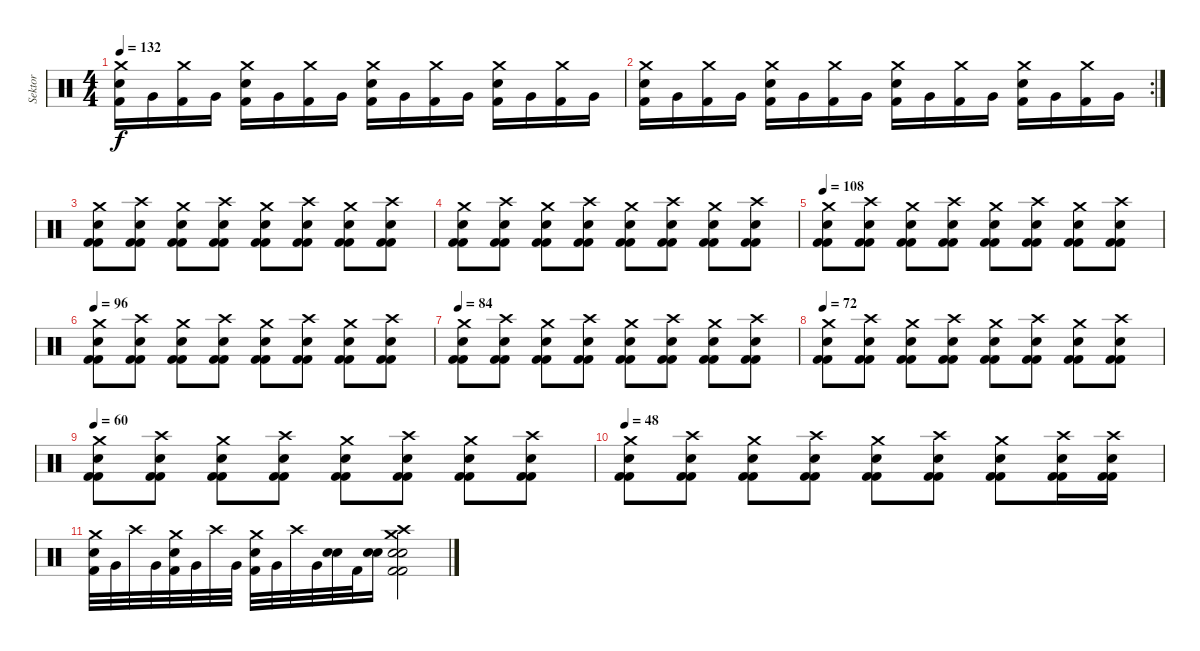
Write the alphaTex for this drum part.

\track ("Sektor" "Sektor") {instrument percussion}
\staff {score}
\articulation defaults
\ts (4 4)
\tempo 132
\clef neutral
\ks c
("Crash medium (hit)" "Snare (hit) 2" "Kick (hit) 2").16{dy f} "Very Low Tom (hit)".16 ("Crash medium (hit)" "Kick (hit) 2").16 "Very Low Tom (hit)".16 ("Crash medium (hit)" "Snare (hit) 2" "Kick (hit) 2").16 "Very Low Tom (hit)".16 ("Crash medium (hit)" "Kick (hit) 2").16 "Very Low Tom (hit)".16 ("Crash medium (hit)" "Snare (hit) 2" "Kick (hit) 2").16 "Very Low Tom (hit)".16 ("Crash medium (hit)" "Kick (hit) 2").16 "Very Low Tom (hit)".16 ("Crash medium (hit)" "Snare (hit) 2" "Kick (hit) 2").16 "Very Low Tom (hit)".16 ("Crash medium (hit)" "Kick (hit) 2").16 "Very Low Tom (hit)".16 |
\rc 2
("Crash medium (hit)" "Snare (hit) 2" "Kick (hit) 2").16 "Very Low Tom (hit)".16 ("Crash medium (hit)" "Kick (hit) 2").16 "Very Low Tom (hit)".16 ("Crash medium (hit)" "Snare (hit) 2" "Kick (hit) 2").16 "Very Low Tom (hit)".16 ("Crash medium (hit)" "Kick (hit) 2").16 "Very Low Tom (hit)".16 ("Crash medium (hit)" "Snare (hit) 2" "Kick (hit) 2").16 "Very Low Tom (hit)".16 ("Crash medium (hit)" "Kick (hit) 2").16 "Very Low Tom (hit)".16 ("Crash medium (hit)" "Snare (hit) 2" "Kick (hit) 2").16 "Very Low Tom (hit)".16 ("Crash medium (hit)" "Kick (hit) 2").16 "Very Low Tom (hit)".16 |
("Crash medium (hit)" "Snare (hit) 2" "Kick (hit) 2" "Kick (hit) 2").8 ("Crash high (hit)" "Snare (hit) 2" "Kick (hit) 2" "Kick (hit) 2").8 ("Crash medium (hit)" "Kick (hit) 2" "Snare (hit) 2" "Kick (hit) 2").8 ("Crash high (hit)" "Snare (hit) 2" "Kick (hit) 2" "Kick (hit) 2").8 ("Crash medium (hit)" "Snare (hit) 2" "Kick (hit) 2" "Kick (hit) 2").8 ("Crash high (hit)" "Snare (hit) 2" "Kick (hit) 2" "Kick (hit) 2").8 ("Crash medium (hit)" "Snare (hit) 2" "Kick (hit) 2" "Kick (hit) 2").8 ("Crash high (hit)" "Snare (hit) 2" "Kick (hit) 2" "Kick (hit) 2").8 |
("Crash medium (hit)" "Snare (hit) 2" "Kick (hit) 2" "Kick (hit) 2").8 ("Crash high (hit)" "Snare (hit) 2" "Kick (hit) 2" "Kick (hit) 2").8 ("Crash medium (hit)" "Kick (hit) 2" "Snare (hit) 2" "Kick (hit) 2").8 ("Crash high (hit)" "Snare (hit) 2" "Kick (hit) 2" "Kick (hit) 2").8 ("Crash medium (hit)" "Snare (hit) 2" "Kick (hit) 2" "Kick (hit) 2").8 ("Crash high (hit)" "Snare (hit) 2" "Kick (hit) 2" "Kick (hit) 2").8 ("Crash medium (hit)" "Snare (hit) 2" "Kick (hit) 2" "Kick (hit) 2").8 ("Crash high (hit)" "Snare (hit) 2" "Kick (hit) 2" "Kick (hit) 2").8 |
\tempo 108
("Crash medium (hit)" "Snare (hit) 2" "Kick (hit) 2" "Kick (hit) 2").8 ("Crash high (hit)" "Snare (hit) 2" "Kick (hit) 2" "Kick (hit) 2").8 ("Crash medium (hit)" "Kick (hit) 2" "Snare (hit) 2" "Kick (hit) 2").8 ("Crash high (hit)" "Snare (hit) 2" "Kick (hit) 2" "Kick (hit) 2").8 ("Crash medium (hit)" "Snare (hit) 2" "Kick (hit) 2" "Kick (hit) 2").8 ("Crash high (hit)" "Snare (hit) 2" "Kick (hit) 2" "Kick (hit) 2").8 ("Crash medium (hit)" "Snare (hit) 2" "Kick (hit) 2" "Kick (hit) 2").8 ("Crash high (hit)" "Snare (hit) 2" "Kick (hit) 2" "Kick (hit) 2").8 |
\tempo 96
("Crash medium (hit)" "Snare (hit) 2" "Kick (hit) 2" "Kick (hit) 2").8 ("Crash high (hit)" "Snare (hit) 2" "Kick (hit) 2" "Kick (hit) 2").8 ("Crash medium (hit)" "Kick (hit) 2" "Snare (hit) 2" "Kick (hit) 2").8 ("Crash high (hit)" "Snare (hit) 2" "Kick (hit) 2" "Kick (hit) 2").8 ("Crash medium (hit)" "Snare (hit) 2" "Kick (hit) 2" "Kick (hit) 2").8 ("Crash high (hit)" "Snare (hit) 2" "Kick (hit) 2" "Kick (hit) 2").8 ("Crash medium (hit)" "Snare (hit) 2" "Kick (hit) 2" "Kick (hit) 2").8 ("Crash high (hit)" "Snare (hit) 2" "Kick (hit) 2" "Kick (hit) 2").8 |
\tempo 84
("Crash medium (hit)" "Snare (hit) 2" "Kick (hit) 2" "Kick (hit) 2").8 ("Crash high (hit)" "Snare (hit) 2" "Kick (hit) 2" "Kick (hit) 2").8 ("Crash medium (hit)" "Kick (hit) 2" "Snare (hit) 2" "Kick (hit) 2").8 ("Crash high (hit)" "Snare (hit) 2" "Kick (hit) 2" "Kick (hit) 2").8 ("Crash medium (hit)" "Snare (hit) 2" "Kick (hit) 2" "Kick (hit) 2").8 ("Crash high (hit)" "Snare (hit) 2" "Kick (hit) 2" "Kick (hit) 2").8 ("Crash medium (hit)" "Snare (hit) 2" "Kick (hit) 2" "Kick (hit) 2").8 ("Crash high (hit)" "Snare (hit) 2" "Kick (hit) 2" "Kick (hit) 2").8 |
\tempo 72
("Crash medium (hit)" "Snare (hit) 2" "Kick (hit) 2" "Kick (hit) 2").8 ("Crash high (hit)" "Snare (hit) 2" "Kick (hit) 2" "Kick (hit) 2").8 ("Crash medium (hit)" "Kick (hit) 2" "Snare (hit) 2" "Kick (hit) 2").8 ("Crash high (hit)" "Snare (hit) 2" "Kick (hit) 2" "Kick (hit) 2").8 ("Crash medium (hit)" "Snare (hit) 2" "Kick (hit) 2" "Kick (hit) 2").8 ("Crash high (hit)" "Snare (hit) 2" "Kick (hit) 2" "Kick (hit) 2").8 ("Crash medium (hit)" "Snare (hit) 2" "Kick (hit) 2" "Kick (hit) 2").8 ("Crash high (hit)" "Snare (hit) 2" "Kick (hit) 2" "Kick (hit) 2").8 |
\tempo 60
("Crash medium (hit)" "Snare (hit) 2" "Kick (hit) 2" "Kick (hit) 2").8 ("Crash high (hit)" "Snare (hit) 2" "Kick (hit) 2" "Kick (hit) 2").8 ("Crash medium (hit)" "Kick (hit) 2" "Snare (hit) 2" "Kick (hit) 2").8 ("Crash high (hit)" "Snare (hit) 2" "Kick (hit) 2" "Kick (hit) 2").8 ("Crash medium (hit)" "Snare (hit) 2" "Kick (hit) 2" "Kick (hit) 2").8 ("Crash high (hit)" "Snare (hit) 2" "Kick (hit) 2" "Kick (hit) 2").8 ("Crash medium (hit)" "Snare (hit) 2" "Kick (hit) 2" "Kick (hit) 2").8 ("Crash high (hit)" "Snare (hit) 2" "Kick (hit) 2" "Kick (hit) 2").8 |
\tempo 48
("Crash medium (hit)" "Snare (hit) 2" "Kick (hit) 2" "Kick (hit) 2").8 ("Crash high (hit)" "Snare (hit) 2" "Kick (hit) 2" "Kick (hit) 2").8 ("Crash medium (hit)" "Kick (hit) 2" "Snare (hit) 2" "Kick (hit) 2").8 ("Crash high (hit)" "Snare (hit) 2" "Kick (hit) 2" "Kick (hit) 2").8 ("Crash medium (hit)" "Snare (hit) 2" "Kick (hit) 2" "Kick (hit) 2").8 ("Crash high (hit)" "Snare (hit) 2" "Kick (hit) 2" "Kick (hit) 2").8 ("Crash medium (hit)" "Snare (hit) 2" "Kick (hit) 2" "Kick (hit) 2").8 ("Crash high (hit)" "Snare (hit) 2" "Kick (hit) 2" "Kick (hit) 2").16 ("Crash high (hit)" "Snare (hit) 2" "Kick (hit) 2" "Kick (hit) 2").16 |
("Crash medium (hit)" "Snare (hit) 2" "Kick (hit) 2").32 "Very Low Tom (hit)".32 "Crash high (hit)".32 "Very Low Tom (hit)".32 ("Crash medium (hit)" "Snare (hit) 2" "Kick (hit) 2").32 "Very Low Tom (hit)".32 "Crash high (hit)".32 "Very Low Tom (hit)".32 ("Crash medium (hit)" "Snare (hit) 2" "Kick (hit) 2").32 "Very Low Tom (hit)".32 "Crash high (hit)".32 "Very Low Tom (hit)".32 ("Snare (hit) 2" "Snare (hit) 2").32 "Kick (hit) 2".32 ("Snare (hit) 2" "Snare (hit) 2").16 ("Kick (hit) 2" "Kick (hit) 2" "Crash high (hit)" "Crash medium (hit)" "Snare (hit) 2" "Snare (hit) 2").2
